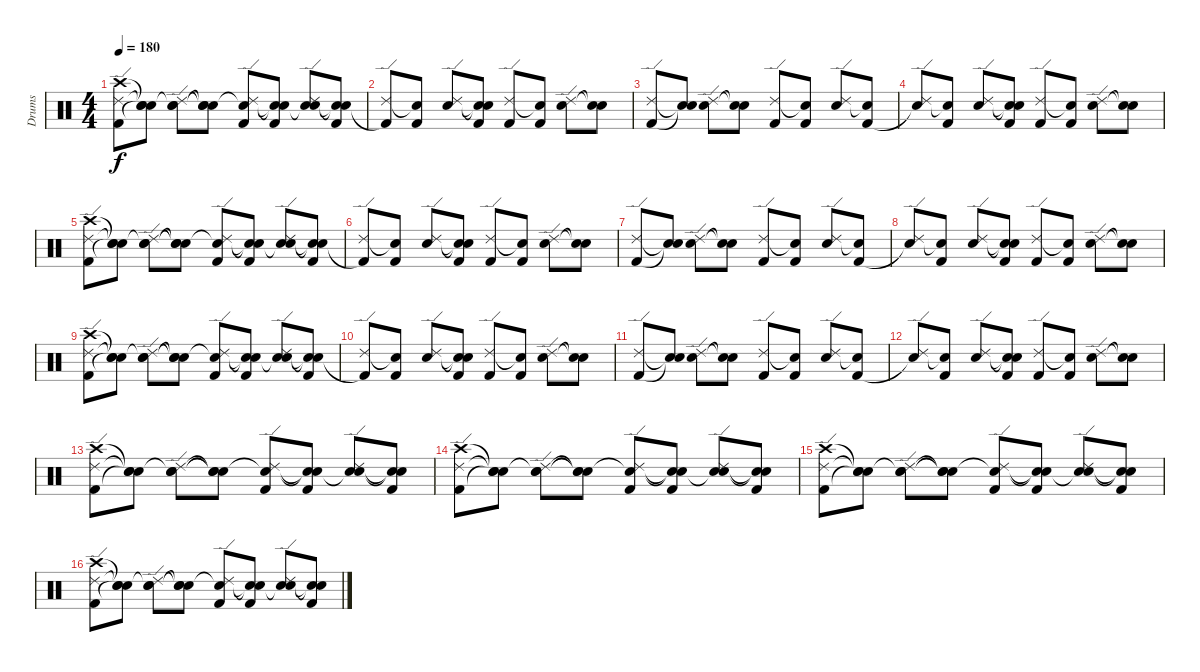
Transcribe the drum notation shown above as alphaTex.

\track ("Drums" "Drums") {instrument percussion}
\staff {score}
\articulation defaults
\ts (4 4)
\tempo 180
\clef neutral
\ks c
("Crash high (hit)" "Ride (edge) 2" "Kick (hit) 2").8{dy f} ("Snare (hit)"{t} "Snare (hit)"{t} "Snare (hit)"{t}).8 ("Snare (hit)"{t} "Ride (edge) 2" "Electric Snare (hit)").8 ("Snare (hit)"{t} "Snare (hit)"{t} "Snare (hit)"{t}).8 ("Snare (hit)"{t} "Ride (edge) 2" "Kick (hit) 2").8 ("Snare (hit)"{t} "Snare (hit)"{t} "Kick (hit) 2").8 ("Snare (hit)"{t} "Ride (edge) 2" "Electric Snare (hit)").8 ("Snare (hit)"{t} "Snare (hit)"{t} "Kick (hit) 2").8 |
("Ride (edge) 2" "Kick (hit) 2"{t}).8 ("Snare (hit)"{t} "Kick (hit) 2").8 ("Ride (edge) 2" "Electric Snare (hit)").8 ("Snare (hit)"{t} "Snare (hit)"{t} "Kick (hit) 2").8 ("Ride (edge) 2" "Kick (hit) 2").8 ("Snare (hit)"{t} "Kick (hit) 2").8 ("Ride (edge) 2" "Electric Snare (hit)").8 ("Snare (hit)"{t} "Snare (hit)"{t}).8 |
("Ride (edge) 2" "Kick (hit) 2").8 ("Snare (hit)"{t} "Snare (hit)"{t}).8 ("Ride (edge) 2" "Electric Snare (hit)").8 ("Snare (hit)"{t} "Snare (hit)"{t}).8 ("Ride (edge) 2" "Kick (hit) 2").8 ("Snare (hit)"{t} "Kick (hit) 2").8 ("Ride (edge) 2" "Electric Snare (hit)").8 ("Snare (hit)"{t} "Kick (hit) 2").8 |
("Ride (edge) 2" "Snare (hit)"{t}).8 ("Snare (hit)"{t} "Kick (hit) 2").8 ("Ride (edge) 2" "Electric Snare (hit)").8 ("Snare (hit)"{t} "Snare (hit)"{t} "Kick (hit) 2").8 ("Ride (edge) 2" "Kick (hit) 2").8 ("Snare (hit)"{t} "Kick (hit) 2").8 ("Ride (edge) 2" "Electric Snare (hit)").8 ("Snare (hit)"{t} "Snare (hit)"{t}).8 |
("Crash high (hit)" "Ride (edge) 2" "Kick (hit) 2").8 ("Snare (hit)"{t} "Snare (hit)"{t} "Snare (hit)"{t}).8 ("Snare (hit)"{t} "Ride (edge) 2" "Electric Snare (hit)").8 ("Snare (hit)"{t} "Snare (hit)"{t} "Snare (hit)"{t}).8 ("Snare (hit)"{t} "Ride (edge) 2" "Kick (hit) 2").8 ("Snare (hit)"{t} "Snare (hit)"{t} "Kick (hit) 2").8 ("Snare (hit)"{t} "Ride (edge) 2" "Electric Snare (hit)").8 ("Snare (hit)"{t} "Snare (hit)"{t} "Kick (hit) 2").8 |
("Ride (edge) 2" "Kick (hit) 2"{t}).8 ("Snare (hit)"{t} "Kick (hit) 2").8 ("Ride (edge) 2" "Electric Snare (hit)").8 ("Snare (hit)"{t} "Snare (hit)"{t} "Kick (hit) 2").8 ("Ride (edge) 2" "Kick (hit) 2").8 ("Snare (hit)"{t} "Kick (hit) 2").8 ("Ride (edge) 2" "Electric Snare (hit)").8 ("Snare (hit)"{t} "Snare (hit)"{t}).8 |
("Ride (edge) 2" "Kick (hit) 2").8 ("Snare (hit)"{t} "Snare (hit)"{t}).8 ("Ride (edge) 2" "Electric Snare (hit)").8 ("Snare (hit)"{t} "Snare (hit)"{t}).8 ("Ride (edge) 2" "Kick (hit) 2").8 ("Snare (hit)"{t} "Kick (hit) 2").8 ("Ride (edge) 2" "Electric Snare (hit)").8 ("Snare (hit)"{t} "Kick (hit) 2").8 |
("Ride (edge) 2" "Snare (hit)"{t}).8 ("Snare (hit)"{t} "Kick (hit) 2").8 ("Ride (edge) 2" "Electric Snare (hit)").8 ("Snare (hit)"{t} "Snare (hit)"{t} "Kick (hit) 2").8 ("Ride (edge) 2" "Kick (hit) 2").8 ("Snare (hit)"{t} "Kick (hit) 2").8 ("Ride (edge) 2" "Electric Snare (hit)").8 ("Snare (hit)"{t} "Snare (hit)"{t}).8 |
("Crash high (hit)" "Ride (edge) 2" "Kick (hit) 2").8 ("Snare (hit)"{t} "Snare (hit)"{t} "Snare (hit)"{t}).8 ("Snare (hit)"{t} "Ride (edge) 2" "Electric Snare (hit)").8 ("Snare (hit)"{t} "Snare (hit)"{t} "Snare (hit)"{t}).8 ("Snare (hit)"{t} "Ride (edge) 2" "Kick (hit) 2").8 ("Snare (hit)"{t} "Snare (hit)"{t} "Kick (hit) 2").8 ("Snare (hit)"{t} "Ride (edge) 2" "Electric Snare (hit)").8 ("Snare (hit)"{t} "Snare (hit)"{t} "Kick (hit) 2").8 |
("Ride (edge) 2" "Kick (hit) 2"{t}).8 ("Snare (hit)"{t} "Kick (hit) 2").8 ("Ride (edge) 2" "Electric Snare (hit)").8 ("Snare (hit)"{t} "Snare (hit)"{t} "Kick (hit) 2").8 ("Ride (edge) 2" "Kick (hit) 2").8 ("Snare (hit)"{t} "Kick (hit) 2").8 ("Ride (edge) 2" "Electric Snare (hit)").8 ("Snare (hit)"{t} "Snare (hit)"{t}).8 |
("Ride (edge) 2" "Kick (hit) 2").8 ("Snare (hit)"{t} "Snare (hit)"{t}).8 ("Ride (edge) 2" "Electric Snare (hit)").8 ("Snare (hit)"{t} "Snare (hit)"{t}).8 ("Ride (edge) 2" "Kick (hit) 2").8 ("Snare (hit)"{t} "Kick (hit) 2").8 ("Ride (edge) 2" "Electric Snare (hit)").8 ("Snare (hit)"{t} "Kick (hit) 2").8 |
("Ride (edge) 2" "Snare (hit)"{t}).8 ("Snare (hit)"{t} "Kick (hit) 2").8 ("Ride (edge) 2" "Electric Snare (hit)").8 ("Snare (hit)"{t} "Snare (hit)"{t} "Kick (hit) 2").8 ("Ride (edge) 2" "Kick (hit) 2").8 ("Snare (hit)"{t} "Kick (hit) 2").8 ("Ride (edge) 2" "Electric Snare (hit)").8 ("Snare (hit)"{t} "Snare (hit)"{t}).8 |
("Crash high (hit)" "Ride (edge) 2" "Kick (hit) 2").8 ("Snare (hit)"{t} "Snare (hit)"{t} "Snare (hit)"{t}).8 ("Snare (hit)"{t} "Ride (edge) 2" "Electric Snare (hit)").8 ("Snare (hit)"{t} "Snare (hit)"{t} "Snare (hit)"{t}).8 ("Snare (hit)"{t} "Ride (edge) 2" "Kick (hit) 2").8 ("Snare (hit)"{t} "Snare (hit)"{t} "Kick (hit) 2").8 ("Snare (hit)"{t} "Ride (edge) 2" "Electric Snare (hit)").8 ("Snare (hit)"{t} "Snare (hit)"{t} "Kick (hit) 2").8 |
("Crash high (hit)" "Ride (edge) 2" "Kick (hit) 2").8 ("Snare (hit)"{t} "Snare (hit)"{t} "Snare (hit)"{t}).8 ("Snare (hit)"{t} "Ride (edge) 2" "Electric Snare (hit)").8 ("Snare (hit)"{t} "Snare (hit)"{t} "Snare (hit)"{t}).8 ("Snare (hit)"{t} "Ride (edge) 2" "Kick (hit) 2").8 ("Snare (hit)"{t} "Snare (hit)"{t} "Kick (hit) 2").8 ("Snare (hit)"{t} "Ride (edge) 2" "Electric Snare (hit)").8 ("Snare (hit)"{t} "Snare (hit)"{t} "Kick (hit) 2").8 |
("Crash high (hit)" "Ride (edge) 2" "Kick (hit) 2").8 ("Snare (hit)"{t} "Snare (hit)"{t} "Snare (hit)"{t}).8 ("Snare (hit)"{t} "Ride (edge) 2" "Electric Snare (hit)").8 ("Snare (hit)"{t} "Snare (hit)"{t} "Snare (hit)"{t}).8 ("Snare (hit)"{t} "Ride (edge) 2" "Kick (hit) 2").8 ("Snare (hit)"{t} "Snare (hit)"{t} "Kick (hit) 2").8 ("Snare (hit)"{t} "Ride (edge) 2" "Electric Snare (hit)").8 ("Snare (hit)"{t} "Snare (hit)"{t} "Kick (hit) 2").8 |
("Crash high (hit)" "Ride (edge) 2" "Kick (hit) 2").8 ("Snare (hit)"{t} "Snare (hit)"{t} "Snare (hit)"{t}).8 ("Snare (hit)"{t} "Ride (edge) 2" "Electric Snare (hit)").8 ("Snare (hit)"{t} "Snare (hit)"{t} "Snare (hit)"{t}).8 ("Snare (hit)"{t} "Ride (edge) 2" "Kick (hit) 2").8 ("Snare (hit)"{t} "Snare (hit)"{t} "Kick (hit) 2").8 ("Snare (hit)"{t} "Ride (edge) 2" "Electric Snare (hit)").8 ("Snare (hit)"{t} "Snare (hit)"{t} "Kick (hit) 2").8
